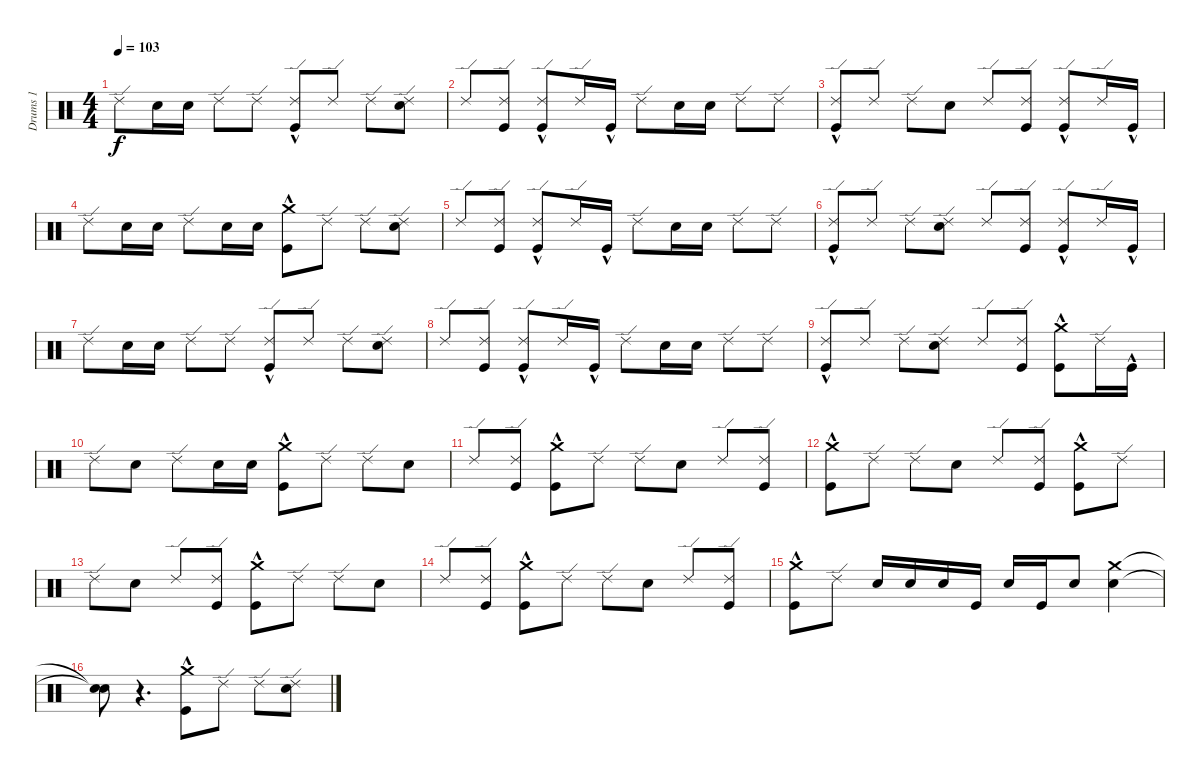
\track ("Drums 1" "Drums 1") {instrument percussion}
\staff {score}
\articulation defaults
\ts (4 4)
\tempo 103
\clef neutral
\ks c "Ride (edge) 2".8{dy f} "Electric Snare (hit)".16 "Electric Snare (hit)".16 "Ride (edge) 2".8 "Ride (edge) 2".8
("Kick (hit)"{hac} "Ride (edge) 2").8 "Ride (edge) 2".8 "Ride (edge) 2".8 ("Electric Snare (hit)" "Ride (edge) 2").8 |
"Ride (edge) 2".8 ("Kick (hit)" "Ride (edge) 2").8 ("Kick (hit)"{hac} "Ride (edge) 2").8 "Ride (edge) 2".16 "Kick (hit)"{hac}.16 "Ride (edge) 2".8 "Electric Snare (hit)".16 "Electric Snare (hit)".16 "Ride (edge) 2".8 "Ride (edge) 2".8 |
("Kick (hit)"{hac} "Ride (edge) 2").8 "Ride (edge) 2".8 "Ride (edge) 2".8 "Electric Snare (hit)".8 "Ride (edge) 2".8 ("Kick (hit)" "Ride (edge) 2").8 ("Kick (hit)"{hac} "Ride (edge) 2").8 "Ride (edge) 2".16 "Kick (hit)"{hac}.16 |
"Ride (edge) 2".8 "Electric Snare (hit)".16 "Electric Snare (hit)".16 "Ride (edge) 2".8 "Electric Snare (hit)".16 "Electric Snare (hit)".16 ("Kick (hit)"{hac} "Crash medium (hit)").8 "Ride (edge) 2".8 "Ride (edge) 2".8 ("Electric Snare (hit)" "Ride (edge) 2").8 |
"Ride (edge) 2".8 ("Kick (hit)" "Ride (edge) 2").8 ("Kick (hit)"{hac} "Ride (edge) 2").8 "Ride (edge) 2".16 "Kick (hit)"{hac}.16 "Ride (edge) 2".8 "Electric Snare (hit)".16 "Electric Snare (hit)".16 "Ride (edge) 2".8 "Ride (edge) 2".8 |
("Kick (hit)"{hac} "Ride (edge) 2").8 "Ride (edge) 2".8 "Ride (edge) 2".8 ("Electric Snare (hit)" "Ride (edge) 2").8 "Ride (edge) 2".8 ("Kick (hit)" "Ride (edge) 2").8 ("Kick (hit)"{hac} "Ride (edge) 2").8 "Ride (edge) 2".16 "Kick (hit)"{hac}.16 |
"Ride (edge) 2".8 "Electric Snare (hit)".16 "Electric Snare (hit)".16 "Ride (edge) 2".8 "Ride (edge) 2".8 ("Kick (hit)"{hac} "Ride (edge) 2").8 "Ride (edge) 2".8 "Ride (edge) 2".8 ("Electric Snare (hit)" "Ride (edge) 2").8 |
"Ride (edge) 2".8 ("Kick (hit)" "Ride (edge) 2").8 ("Kick (hit)"{hac} "Ride (edge) 2").8 "Ride (edge) 2".16 "Kick (hit)"{hac}.16 "Ride (edge) 2".8 "Electric Snare (hit)".16 "Electric Snare (hit)".16 "Ride (edge) 2".8 "Ride (edge) 2".8 |
("Kick (hit)"{hac} "Ride (edge) 2").8 "Ride (edge) 2".8 "Ride (edge) 2".8 ("Electric Snare (hit)" "Ride (edge) 2").8 "Ride (edge) 2".8 ("Kick (hit)" "Ride (edge) 2").8 ("Kick (hit)"{hac} "Crash medium (hit)").8 "Ride (edge) 2".16 "Kick (hit)"{hac}.16 |
"Ride (edge) 2".8 "Electric Snare (hit)".8 "Ride (edge) 2".8 "Electric Snare (hit)".16 "Electric Snare (hit)".16 ("Kick (hit)"{hac} "Crash medium (hit)").8 "Ride (edge) 2".8 "Ride (edge) 2".8 "Electric Snare (hit)".8 |
"Ride (edge) 2".8 ("Kick (hit)" "Ride (edge) 2").8 ("Kick (hit)"{hac} "Crash medium (hit)").8 "Ride (edge) 2".8 "Ride (edge) 2".8 "Electric Snare (hit)".8 "Ride (edge) 2".8 ("Kick (hit)" "Ride (edge) 2").8 |
("Kick (hit)"{hac} "Crash medium (hit)").8 "Ride (edge) 2".8 "Ride (edge) 2".8 "Electric Snare (hit)".8 "Ride (edge) 2".8 ("Kick (hit)" "Ride (edge) 2").8 ("Kick (hit)"{hac} "Crash medium (hit)").8 "Ride (edge) 2".8 |
"Ride (edge) 2".8 "Electric Snare (hit)".8 "Ride (edge) 2".8 ("Kick (hit)" "Ride (edge) 2").8 ("Kick (hit)"{hac} "Crash medium (hit)").8 "Ride (edge) 2".8 "Ride (edge) 2".8 "Electric Snare (hit)".8 |
"Ride (edge) 2".8 ("Kick (hit)" "Ride (edge) 2").8 ("Kick (hit)"{hac} "Crash medium (hit)").8 "Ride (edge) 2".8 "Ride (edge) 2".8 "Electric Snare (hit)".8 "Ride (edge) 2".8 ("Kick (hit)" "Ride (edge) 2").8 |
("Kick (hit)"{hac} "Crash medium (hit)").8 "Ride (edge) 2".8 "Electric Snare (hit)".16 "Electric Snare (hit)".16 "Electric Snare (hit)".16 "Kick (hit)".16 "Electric Snare (hit)".16 "Kick (hit)".16 "Electric Snare (hit)".8 ("Crash medium (hit)" "Electric Snare (hit)").4 |
("Snare (hit)"{t} "Snare (hit)"{t}).8 r.4{d} ("Kick (hit)"{hac} "Crash medium (hit)").8 "Ride (edge) 2".8 "Ride (edge) 2".8 ("Electric Snare (hit)" "Ride (edge) 2").8
